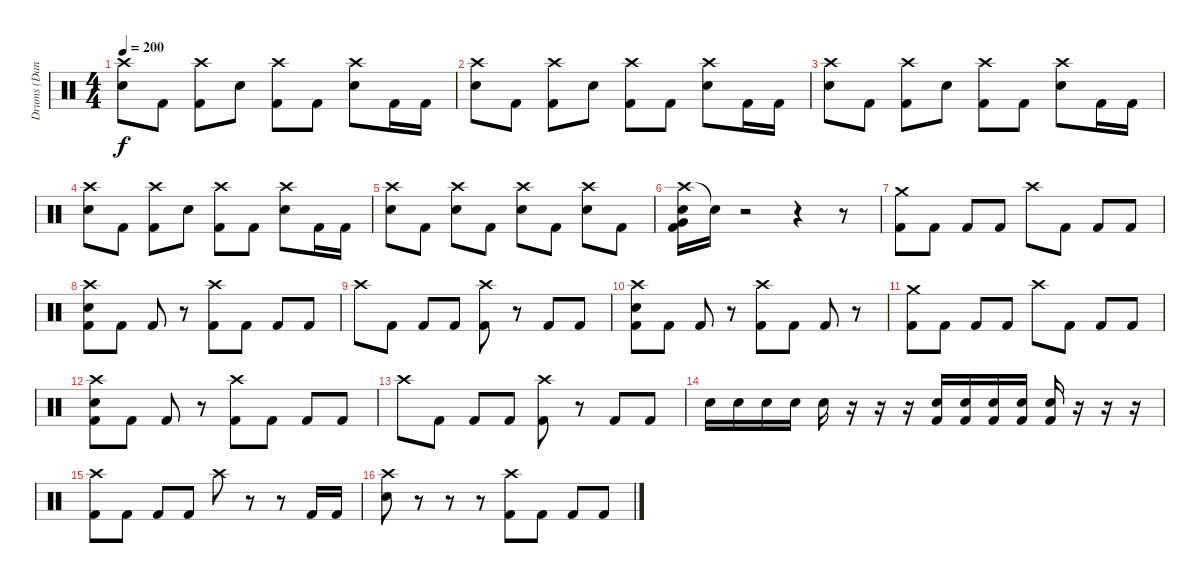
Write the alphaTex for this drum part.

\track ("Drums (Daniel)" "Drums (Dan") {instrument percussion}
\staff {score}
\articulation defaults
\ts (4 4)
\tempo 200
\clef neutral
\ks c
("Crash high (hit)" "Electric Snare (hit)").8{dy f} "Kick (hit) 2".8 ("Crash high (hit)" "Kick (hit) 2").8 "Electric Snare (hit)".8 ("Crash high (hit)" "Kick (hit) 2").8 "Kick (hit) 2".8 ("Crash high (hit)" "Electric Snare (hit)").8 "Kick (hit) 2".16 "Kick (hit) 2".16 |
("Crash high (hit)" "Electric Snare (hit)").8 "Kick (hit) 2".8 ("Crash high (hit)" "Kick (hit) 2").8 "Electric Snare (hit)".8 ("Crash high (hit)" "Kick (hit) 2").8 "Kick (hit) 2".8 ("Crash high (hit)" "Electric Snare (hit)").8 "Kick (hit) 2".16 "Kick (hit) 2".16 |
("Crash high (hit)" "Electric Snare (hit)").8 "Kick (hit) 2".8 ("Crash high (hit)" "Kick (hit) 2").8 "Electric Snare (hit)".8 ("Crash high (hit)" "Kick (hit) 2").8 "Kick (hit) 2".8 ("Crash high (hit)" "Electric Snare (hit)").8 "Kick (hit) 2".16 "Kick (hit) 2".16 |
("Crash high (hit)" "Electric Snare (hit)").8 "Kick (hit) 2".8 ("Crash high (hit)" "Kick (hit) 2").8 "Electric Snare (hit)".8 ("Crash high (hit)" "Kick (hit) 2").8 "Kick (hit) 2".8 ("Crash high (hit)" "Electric Snare (hit)").8 "Kick (hit) 2".16 "Kick (hit) 2".16 |
("Crash high (hit)" "Electric Snare (hit)").8 "Kick (hit) 2".8 ("Crash high (hit)" "Electric Snare (hit)").8 "Kick (hit) 2".8 ("Crash high (hit)" "Electric Snare (hit)").8 "Kick (hit) 2".8 ("Crash high (hit)" "Electric Snare (hit)").8 "Kick (hit) 2".8 |
("Crash high (hit)" "Very Low Tom (hit)" "Electric Snare (hit)" "Kick (hit) 2").16 "Snare (hit)"{t}.16 r.2 r.4 r.8 |
("Crash medium (hit)" "Kick (hit) 2").8 "Kick (hit) 2".8 "Kick (hit) 2".8 "Kick (hit) 2".8 "Crash high (hit)".8 "Kick (hit) 2".8 "Kick (hit) 2".8 "Kick (hit) 2".8 |
("Crash high (hit)" "Electric Snare (hit)" "Kick (hit) 2").8 "Kick (hit) 2".8 "Kick (hit) 2".8 r.8 ("Crash high (hit)" "Kick (hit) 2").8 "Kick (hit) 2".8 "Kick (hit) 2".8 "Kick (hit) 2".8 |
"Crash high (hit)".8 "Kick (hit) 2".8 "Kick (hit) 2".8 "Kick (hit) 2".8 ("Crash high (hit)" "Kick (hit) 2").8 r.8 "Kick (hit) 2".8 "Kick (hit) 2".8 |
("Crash high (hit)" "Electric Snare (hit)" "Kick (hit) 2").8 "Kick (hit) 2".8 "Kick (hit) 2".8 r.8 ("Crash high (hit)" "Kick (hit) 2").8 "Kick (hit) 2".8 "Kick (hit) 2".8 r.8 |
("Crash medium (hit)" "Kick (hit) 2").8 "Kick (hit) 2".8 "Kick (hit) 2".8 "Kick (hit) 2".8 "Crash high (hit)".8 "Kick (hit) 2".8 "Kick (hit) 2".8 "Kick (hit) 2".8 |
("Crash high (hit)" "Electric Snare (hit)" "Kick (hit) 2").8 "Kick (hit) 2".8 "Kick (hit) 2".8 r.8 ("Crash high (hit)" "Kick (hit) 2").8 "Kick (hit) 2".8 "Kick (hit) 2".8 "Kick (hit) 2".8 |
"Crash high (hit)".8 "Kick (hit) 2".8 "Kick (hit) 2".8 "Kick (hit) 2".8 ("Crash high (hit)" "Kick (hit) 2").8 r.8 "Kick (hit) 2".8 "Kick (hit) 2".8 |
"Electric Snare (hit)".16 "Electric Snare (hit)".16 "Electric Snare (hit)".16 "Electric Snare (hit)".16 "Electric Snare (hit)".16 r.16 r.16 r.16 ("Electric Snare (hit)" "Kick (hit) 2").16 ("Electric Snare (hit)" "Kick (hit) 2").16 ("Electric Snare (hit)" "Kick (hit) 2").16 ("Electric Snare (hit)" "Kick (hit) 2").16 ("Electric Snare (hit)" "Kick (hit) 2").16 r.16 r.16 r.16 |
("Crash high (hit)" "Kick (hit) 2").8 "Kick (hit) 2".8 "Kick (hit) 2".8 "Kick (hit) 2".8 "Crash high (hit)".8 r.8 r.8 "Kick (hit) 2".16 "Kick (hit) 2".16 |
("Crash high (hit)" "Electric Snare (hit)").8 r.8 r.8 r.8 ("Crash high (hit)" "Kick (hit) 2").8 "Kick (hit) 2".8 "Kick (hit) 2".8 "Kick (hit) 2".8
